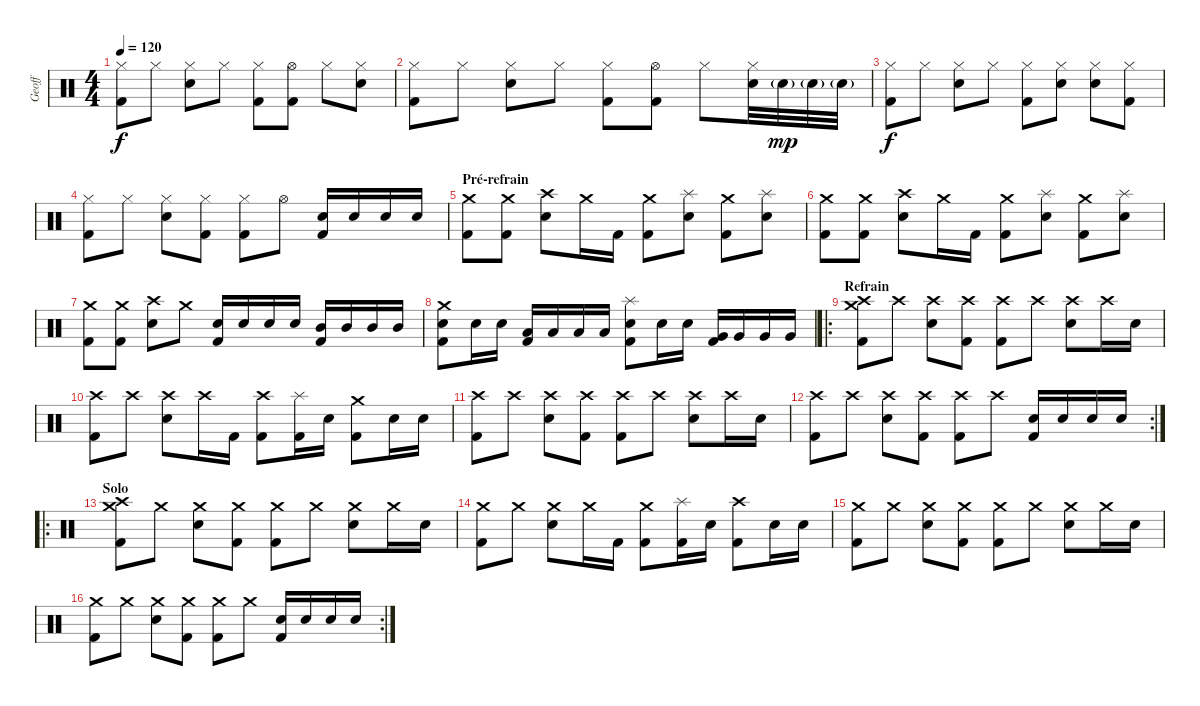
\track ("Geoff" "Geoff") {instrument percussion}
\staff {score}
\articulation defaults
\ts (4 4)
\tempo 120
\clef neutral
\ks c
("Hi-Hat (closed)" "Kick (hit) 2").8{dy f} "Hi-Hat (closed)".8 ("Hi-Hat (closed)" "Electric Snare (hit)").8 "Hi-Hat (closed)".8 ("Hi-Hat (closed)" "Kick (hit) 2").8 ("Hi-Hat (open)" "Kick (hit) 2").8 "Hi-Hat (closed)".8 ("Hi-Hat (closed)" "Electric Snare (hit)").8 |
("Hi-Hat (closed)" "Kick (hit) 2").8 "Hi-Hat (closed)".8 ("Hi-Hat (closed)" "Electric Snare (hit)").8 "Hi-Hat (closed)".8 ("Hi-Hat (closed)" "Kick (hit) 2").8 ("Hi-Hat (open)" "Kick (hit) 2").8 "Hi-Hat (closed)".8 ("Hi-Hat (closed)" "Electric Snare (hit)").32 "Electric Snare (hit)"{g}.32{dy mp} "Electric Snare (hit)"{g}.32 "Electric Snare (hit)"{g}.32 |
("Hi-Hat (closed)" "Kick (hit) 2").8{dy f} "Hi-Hat (closed)".8 ("Hi-Hat (closed)" "Electric Snare (hit)").8 "Hi-Hat (closed)".8 ("Hi-Hat (closed)" "Kick (hit) 2").8 ("Hi-Hat (closed)" "Electric Snare (hit)").8 ("Hi-Hat (closed)" "Electric Snare (hit)").8 ("Hi-Hat (closed)" "Kick (hit) 2").8 |
("Hi-Hat (closed)" "Kick (hit) 2").8 "Hi-Hat (closed)".8 ("Hi-Hat (closed)" "Electric Snare (hit)").8 ("Hi-Hat (closed)" "Kick (hit) 2").8 ("Hi-Hat (closed)" "Kick (hit) 2").8 "Hi-Hat (open)".8 ("Electric Snare (hit)" "Kick (hit) 2").16 "Electric Snare (hit)".16 "Electric Snare (hit)".16 "Electric Snare (hit)".16 |
\section ("" "Pré-refrain")
("Crash medium (hit)" "Kick (hit) 2").8 ("Crash medium (hit)" "Kick (hit) 2").8 ("Crash high (hit)" "Electric Snare (hit)").8 "Crash medium (hit)".16 "Kick (hit) 2".16 ("Crash medium (hit)" "Kick (hit) 2").8 ("Splash (hit)" "Electric Snare (hit)").8 ("Crash medium (hit)" "Kick (hit) 2").8 ("Splash (hit)" "Electric Snare (hit)").8 |
("Crash medium (hit)" "Kick (hit) 2").8 ("Crash medium (hit)" "Kick (hit) 2").8 ("Crash high (hit)" "Electric Snare (hit)").8 "Crash medium (hit)".16 "Kick (hit) 2".16 ("Crash medium (hit)" "Kick (hit) 2").8 ("Splash (hit)" "Electric Snare (hit)").8 ("Crash medium (hit)" "Kick (hit) 2").8 ("Splash (hit)" "Electric Snare (hit)").8 |
("Crash medium (hit)" "Kick (hit) 2").8 ("Crash medium (hit)" "Kick (hit) 2").8 ("Crash high (hit)" "Electric Snare (hit)").8 "Crash medium (hit)".8 ("Electric Snare (hit)" "Kick (hit) 2").16 "Electric Snare (hit)".16 "Electric Snare (hit)".16 "Electric Snare (hit)".16 ("Mid Tom (hit)" "Kick (hit) 2").16 "Mid Tom (hit)".16 "Mid Tom (hit)".16 "Mid Tom (hit)".16 |
("Crash medium (hit)" "Electric Snare (hit)" "Kick (hit) 2").8 "Electric Snare (hit)".16 "Electric Snare (hit)".16 ("Low Tom (hit)" "Kick (hit) 2").16 "Low Tom (hit)".16 "Low Tom (hit)".16 "Low Tom (hit)".16 ("Splash (hit)" "Electric Snare (hit)" "Kick (hit) 2").8 "Electric Snare (hit)".16 "Electric Snare (hit)".16 ("Very Low Tom (hit)" "Kick (hit) 2").16 "Very Low Tom (hit)".16 "Very Low Tom (hit)".16 "Very Low Tom (hit)".16 |
\ro
\section ("" "Refrain")
("Crash high (hit)" "Crash medium (hit)" "Kick (hit) 2").8 "Crash high (hit)".8 ("Crash high (hit)" "Electric Snare (hit)").8 ("Crash high (hit)" "Kick (hit) 2").8 ("Crash high (hit)" "Kick (hit) 2").8 "Crash high (hit)".8 ("Crash high (hit)" "Electric Snare (hit)").8 "Crash high (hit)".16 "Electric Snare (hit)".16 |
("Crash high (hit)" "Kick (hit) 2").8 "Crash high (hit)".8 ("Crash high (hit)" "Electric Snare (hit)").8 "Crash high (hit)".16 "Kick (hit) 2".16 ("Crash high (hit)" "Kick (hit) 2").8 ("Splash (hit)" "Kick (hit) 2").16 "Electric Snare (hit)".16 ("Crash medium (hit)" "Kick (hit) 2").8 "Electric Snare (hit)".16 "Electric Snare (hit)".16 |
("Crash high (hit)" "Kick (hit) 2").8 "Crash high (hit)".8 ("Crash high (hit)" "Electric Snare (hit)").8 ("Crash high (hit)" "Kick (hit) 2").8 ("Crash high (hit)" "Kick (hit) 2").8 "Crash high (hit)".8 ("Crash high (hit)" "Electric Snare (hit)").8 "Crash high (hit)".16 "Electric Snare (hit)".16 |
\rc 2
("Crash high (hit)" "Kick (hit) 2").8 "Crash high (hit)".8 ("Crash high (hit)" "Electric Snare (hit)").8 ("Crash high (hit)" "Kick (hit) 2").8 ("Crash high (hit)" "Kick (hit) 2").8 "Crash high (hit)".8 ("Electric Snare (hit)" "Kick (hit) 2").16 "Electric Snare (hit)".16 "Electric Snare (hit)".16 "Electric Snare (hit)".16 |
\ro
\section ("" "Solo")
("Crash medium (hit)" "Crash high (hit)" "Kick (hit) 2").8 "Crash medium (hit)".8 ("Crash medium (hit)" "Electric Snare (hit)").8 ("Crash medium (hit)" "Kick (hit) 2").8 ("Crash medium (hit)" "Kick (hit) 2").8 "Crash medium (hit)".8 ("Crash medium (hit)" "Electric Snare (hit)").8 "Crash medium (hit)".16 "Electric Snare (hit)".16 |
("Crash medium (hit)" "Kick (hit) 2").8 "Crash medium (hit)".8 ("Crash medium (hit)" "Electric Snare (hit)").8 "Crash medium (hit)".16 "Kick (hit) 2".16 ("Crash medium (hit)" "Kick (hit) 2").8 ("Splash (hit)" "Kick (hit) 2").16 "Electric Snare (hit)".16 ("Crash high (hit)" "Kick (hit) 2").8 "Electric Snare (hit)".16 "Electric Snare (hit)".16 |
("Crash medium (hit)" "Kick (hit) 2").8 "Crash medium (hit)".8 ("Crash medium (hit)" "Electric Snare (hit)").8 ("Crash medium (hit)" "Kick (hit) 2").8 ("Crash medium (hit)" "Kick (hit) 2").8 "Crash medium (hit)".8 ("Crash medium (hit)" "Electric Snare (hit)").8 "Crash medium (hit)".16 "Electric Snare (hit)".16 |
\rc 2
("Crash medium (hit)" "Kick (hit) 2").8 "Crash medium (hit)".8 ("Crash medium (hit)" "Electric Snare (hit)").8 ("Crash medium (hit)" "Kick (hit) 2").8 ("Crash medium (hit)" "Kick (hit) 2").8 "Crash medium (hit)".8 ("Electric Snare (hit)" "Kick (hit) 2").16 "Electric Snare (hit)".16 "Electric Snare (hit)".16 "Electric Snare (hit)".16
